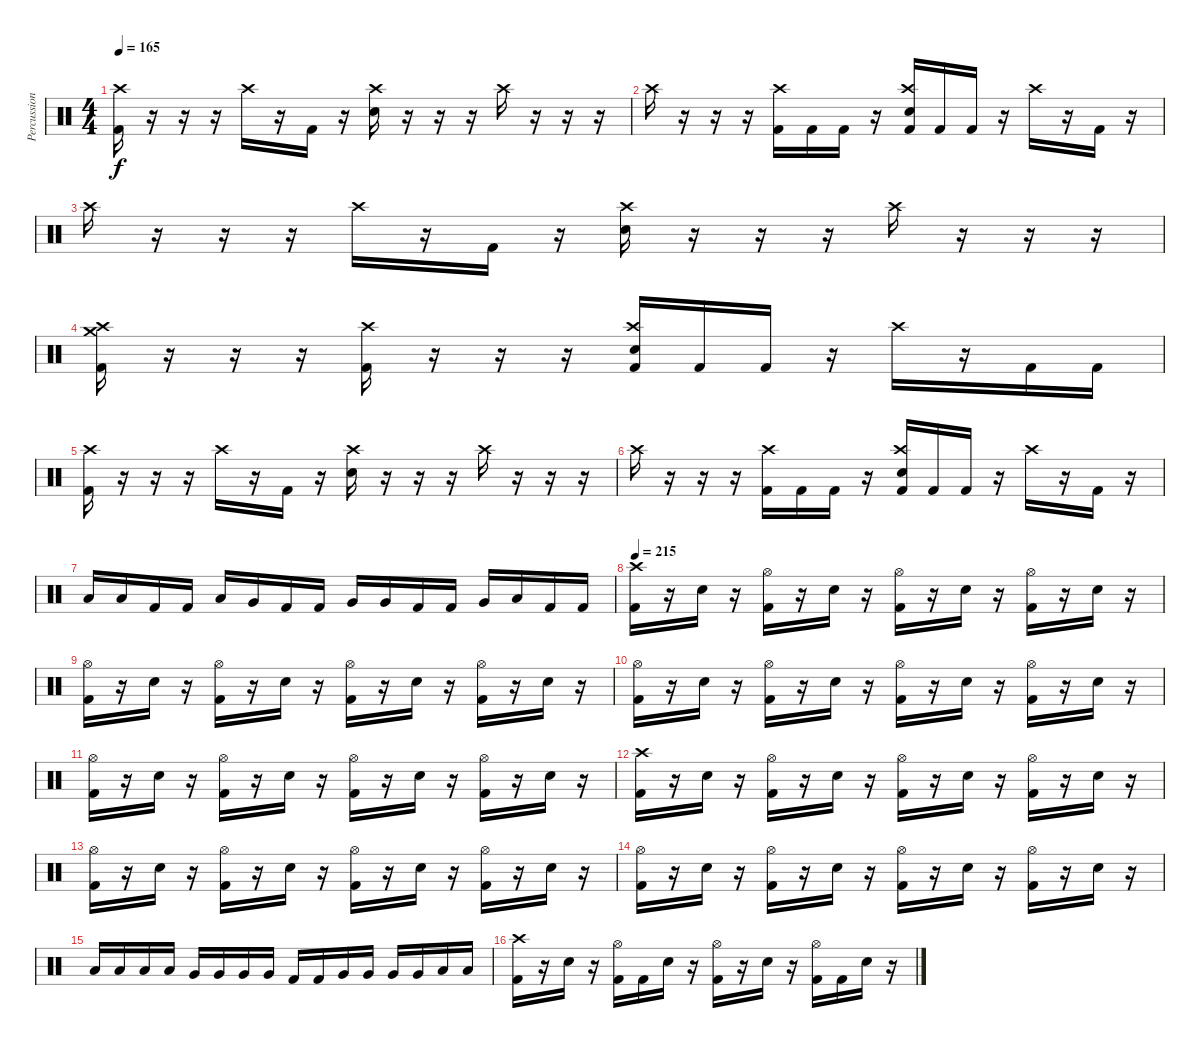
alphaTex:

\track ("Percussion" "Percussion") {instrument percussion}
\staff {score}
\articulation defaults
\ts (4 4)
\tempo 165
\clef neutral
\ks c
("Kick (hit) 2" "Crash high (hit)").16{dy f} r.16 r.16 r.16 "Crash high (hit)".16 r.16 "Kick (hit) 2".16 r.16 ("Electric Snare (hit)" "Crash high (hit)").16 r.16 r.16 r.16 "Crash high (hit)".16 r.16 r.16 r.16 |
"Crash high (hit)".16 r.16 r.16 r.16 ("Kick (hit) 2" "Crash high (hit)").16 "Kick (hit) 2".16 "Kick (hit) 2".16 r.16 ("Kick (hit) 2" "Electric Snare (hit)" "Crash high (hit)").16 "Kick (hit) 2".16 "Kick (hit) 2".16 r.16 "Crash high (hit)".16 r.16 "Kick (hit) 2".16 r.16 |
"Crash high (hit)".16 r.16 r.16 r.16 "Crash high (hit)".16 r.16 "Kick (hit) 2".16 r.16 ("Electric Snare (hit)" "Crash high (hit)").16 r.16 r.16 r.16 "Crash high (hit)".16 r.16 r.16 r.16 |
("Kick (hit) 2" "Crash medium (hit)" "Crash high (hit)").16 r.16 r.16 r.16 ("Kick (hit) 2" "Crash high (hit)").16 r.16 r.16 r.16 ("Kick (hit) 2" "Electric Snare (hit)" "Crash high (hit)").16 "Kick (hit) 2".16 "Kick (hit) 2".16 r.16 "Crash high (hit)".16 r.16 "Kick (hit) 2".16 "Kick (hit) 2".16 |
("Kick (hit) 2" "Crash high (hit)").16 r.16 r.16 r.16 "Crash high (hit)".16 r.16 "Kick (hit) 2".16 r.16 ("Electric Snare (hit)" "Crash high (hit)").16 r.16 r.16 r.16 "Crash high (hit)".16 r.16 r.16 r.16 |
"Crash high (hit)".16 r.16 r.16 r.16 ("Kick (hit) 2" "Crash high (hit)").16 "Kick (hit) 2".16 "Kick (hit) 2".16 r.16 ("Kick (hit) 2" "Electric Snare (hit)" "Crash high (hit)").16 "Kick (hit) 2".16 "Kick (hit) 2".16 r.16 "Crash high (hit)".16 r.16 "Kick (hit) 2".16 r.16 |
"Low Tom (hit)".16 "Low Tom (hit)".16 "Kick (hit) 2".16 "Kick (hit) 2".16 "Low Tom (hit)".16 "Very Low Tom (hit)".16 "Kick (hit) 2".16 "Kick (hit) 2".16 "Very Low Tom (hit)".16 "Very Low Tom (hit)".16 "Kick (hit) 2".16 "Kick (hit) 2".16 "Very Low Tom (hit)".16 "Low Floor Tom (hit)".16 "Kick (hit) 2".16 "Kick (hit) 2".16 |
\tempo 215
("Kick (hit) 2" "Crash high (hit)").16 r.16 "Electric Snare (hit)".16 r.16 ("Kick (hit) 2" "Hi-Hat (open)").16 r.16 "Electric Snare (hit)".16 r.16 ("Kick (hit) 2" "Hi-Hat (open)").16 r.16 "Electric Snare (hit)".16 r.16 ("Kick (hit) 2" "Hi-Hat (open)").16 r.16 "Electric Snare (hit)".16 r.16 |
("Kick (hit) 2" "Hi-Hat (open)").16 r.16 "Electric Snare (hit)".16 r.16 ("Kick (hit) 2" "Hi-Hat (open)").16 r.16 "Electric Snare (hit)".16 r.16 ("Kick (hit) 2" "Hi-Hat (open)").16 r.16 "Electric Snare (hit)".16 r.16 ("Kick (hit) 2" "Hi-Hat (open)").16 r.16 "Electric Snare (hit)".16 r.16 |
("Kick (hit) 2" "Hi-Hat (open)").16 r.16 "Electric Snare (hit)".16 r.16 ("Kick (hit) 2" "Hi-Hat (open)").16 r.16 "Electric Snare (hit)".16 r.16 ("Kick (hit) 2" "Hi-Hat (open)").16 r.16 "Electric Snare (hit)".16 r.16 ("Kick (hit) 2" "Hi-Hat (open)").16 r.16 "Electric Snare (hit)".16 r.16 |
("Kick (hit) 2" "Hi-Hat (open)").16 r.16 "Electric Snare (hit)".16 r.16 ("Kick (hit) 2" "Hi-Hat (open)").16 r.16 "Electric Snare (hit)".16 r.16 ("Kick (hit) 2" "Hi-Hat (open)").16 r.16 "Electric Snare (hit)".16 r.16 ("Kick (hit) 2" "Hi-Hat (open)").16 r.16 "Electric Snare (hit)".16 r.16 |
("Kick (hit) 2" "Crash high (hit)").16 r.16 "Electric Snare (hit)".16 r.16 ("Kick (hit) 2" "Hi-Hat (open)").16 r.16 "Electric Snare (hit)".16 r.16 ("Kick (hit) 2" "Hi-Hat (open)").16 r.16 "Electric Snare (hit)".16 r.16 ("Kick (hit) 2" "Hi-Hat (open)").16 r.16 "Electric Snare (hit)".16 r.16 |
("Kick (hit) 2" "Hi-Hat (open)").16 r.16 "Electric Snare (hit)".16 r.16 ("Kick (hit) 2" "Hi-Hat (open)").16 r.16 "Electric Snare (hit)".16 r.16 ("Kick (hit) 2" "Hi-Hat (open)").16 r.16 "Electric Snare (hit)".16 r.16 ("Kick (hit) 2" "Hi-Hat (open)").16 r.16 "Electric Snare (hit)".16 r.16 |
("Kick (hit) 2" "Hi-Hat (open)").16 r.16 "Electric Snare (hit)".16 r.16 ("Kick (hit) 2" "Hi-Hat (open)").16 r.16 "Electric Snare (hit)".16 r.16 ("Kick (hit) 2" "Hi-Hat (open)").16 r.16 "Electric Snare (hit)".16 r.16 ("Kick (hit) 2" "Hi-Hat (open)").16 r.16 "Electric Snare (hit)".16 r.16 |
"Low Tom (hit)".16 "Low Tom (hit)".16 "Low Tom (hit)".16 "Low Tom (hit)".16 "Very Low Tom (hit)".16 "Very Low Tom (hit)".16 "Very Low Tom (hit)".16 "Very Low Tom (hit)".16 "Kick (hit) 2".16 "Kick (hit) 2".16 "Very Low Tom (hit)".16 "Very Low Tom (hit)".16 "Very Low Tom (hit)".16 "Very Low Tom (hit)".16 "Low Floor Tom (hit)".16 "Low Floor Tom (hit)".16 |
("Kick (hit) 2" "Crash high (hit)").16 r.16 "Electric Snare (hit)".16 r.16 ("Kick (hit) 2" "Hi-Hat (open)").16 "Kick (hit) 2".16 "Electric Snare (hit)".16 r.16 ("Kick (hit) 2" "Hi-Hat (open)").16 r.16 "Electric Snare (hit)".16 r.16 ("Kick (hit) 2" "Hi-Hat (open)").16 "Kick (hit) 2".16 "Electric Snare (hit)".16 r.16
